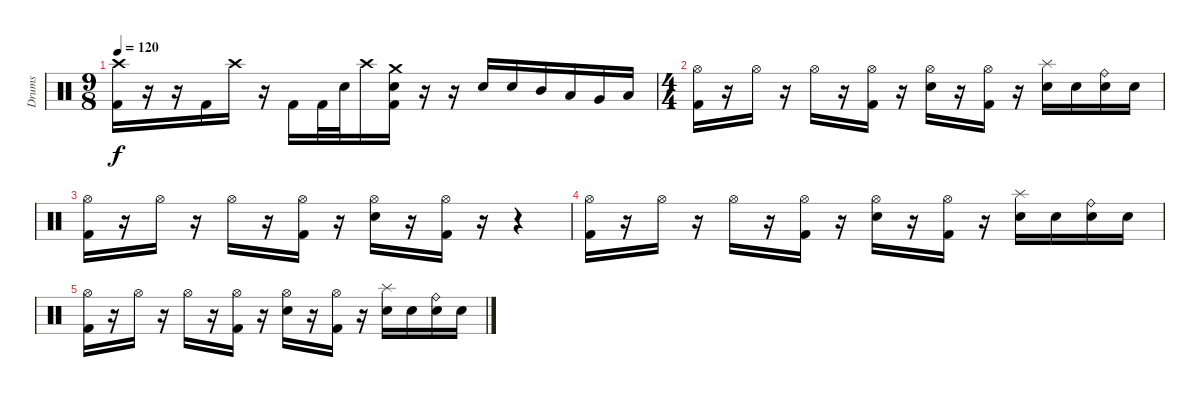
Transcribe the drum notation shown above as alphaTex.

\track ("Drums" "Drums") {instrument percussion}
\staff {score}
\articulation defaults
\ts (9 8)
\tempo 120
\clef neutral
\ks c
("Crash high (hit)" "Kick (hit) 2").16{dy f} r.16 r.16 "Kick (hit) 2".16 "Crash high (hit)".16 r.16 "Kick (hit) 2".16{beam Down} "Kick (hit) 2".32{beam Down} "Electric Snare (hit)".32{beam Down} "Crash high (hit)".16{beam Down} ("Crash medium (hit)" "Electric Snare (hit)" "Kick (hit) 2").16{beam Down} r.16 r.16 "Electric Snare (hit)".16 "Electric Snare (hit)".16 "Mid Tom (hit)".16 "Low Tom (hit)".16 "Very Low Tom (hit)".16 "Low Floor Tom (hit)".16 |
\ts (4 4)
("Hi-Hat (open)" "Kick (hit) 2").16 r.16 "Hi-Hat (open)".16 r.16 "Hi-Hat (open)".16 r.16 ("Hi-Hat (open)" "Kick (hit) 2").16 r.16 ("Hi-Hat (open)" "Electric Snare (hit)").16 r.16 ("Hi-Hat (open)" "Kick (hit) 2").16 r.16 ("Splash (hit)" "Electric Snare (hit)").16 "Electric Snare (hit)".16 ("Ride (bell)" "Electric Snare (hit)").16 "Electric Snare (hit)".16 |
("Hi-Hat (open)" "Kick (hit) 2").16 r.16 "Hi-Hat (open)".16 r.16 "Hi-Hat (open)".16 r.16 ("Hi-Hat (open)" "Kick (hit) 2").16 r.16 ("Hi-Hat (open)" "Electric Snare (hit)").16 r.16 ("Hi-Hat (open)" "Kick (hit) 2").16 r.16 r.4 |
("Hi-Hat (open)" "Kick (hit) 2").16 r.16 "Hi-Hat (open)".16 r.16 "Hi-Hat (open)".16 r.16 ("Hi-Hat (open)" "Kick (hit) 2").16 r.16 ("Hi-Hat (open)" "Electric Snare (hit)").16 r.16 ("Hi-Hat (open)" "Kick (hit) 2").16 r.16 ("Splash (hit)" "Electric Snare (hit)").16 "Electric Snare (hit)".16 ("Ride (bell)" "Electric Snare (hit)").16 "Electric Snare (hit)".16 |
("Hi-Hat (open)" "Kick (hit) 2").16 r.16 "Hi-Hat (open)".16 r.16 "Hi-Hat (open)".16 r.16 ("Hi-Hat (open)" "Kick (hit) 2").16 r.16 ("Hi-Hat (open)" "Electric Snare (hit)").16 r.16 ("Hi-Hat (open)" "Kick (hit) 2").16 r.16 ("Splash (hit)" "Electric Snare (hit)").16 "Electric Snare (hit)".16 ("Ride (bell)" "Electric Snare (hit)").16 "Electric Snare (hit)".16
